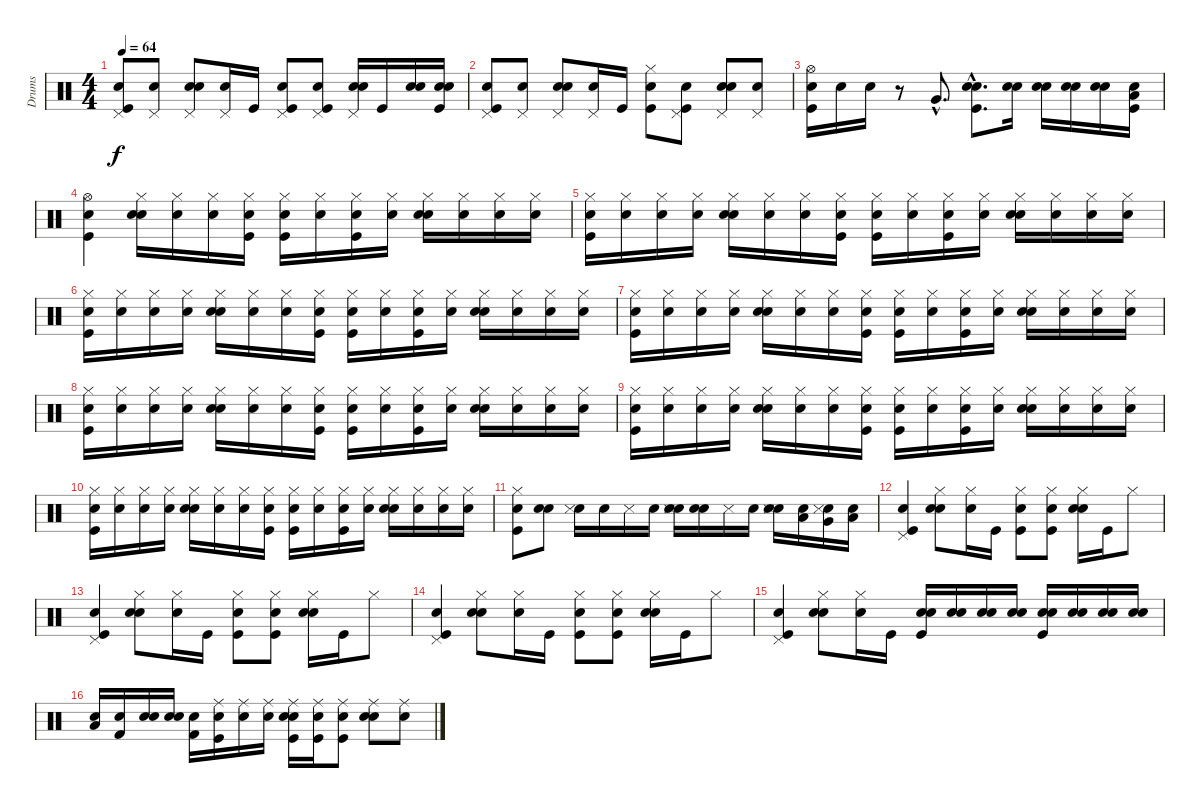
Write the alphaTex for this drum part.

\track ("Drums" "Drums") {instrument percussion}
\staff {score}
\articulation defaults
\ts (4 4)
\tempo 64
\clef neutral
\ks c
("Snare (hit)" "Kick (hit)" "Pedal Hi-Hat (hit)").8{dy f} ("Snare (hit)" "Pedal Hi-Hat (hit)").8 ("Snare (hit)" "Pedal Hi-Hat (hit)" "Snare (hit) 2").8 ("Snare (hit)" "Pedal Hi-Hat (hit)").16 "Kick (hit)".16 ("Snare (hit)" "Kick (hit)" "Pedal Hi-Hat (hit)").8 ("Snare (hit)" "Kick (hit)" "Pedal Hi-Hat (hit)").8 ("Snare (hit)" "Pedal Hi-Hat (hit)" "Snare (hit) 2").16 "Kick (hit)".16 ("Snare (hit)" "Snare (hit) 2").16 ("Snare (hit)" "Kick (hit)" "Snare (hit) 2").16 |
("Snare (hit)" "Kick (hit)" "Pedal Hi-Hat (hit)").8 ("Snare (hit)" "Pedal Hi-Hat (hit)").8 ("Snare (hit)" "Pedal Hi-Hat (hit)" "Snare (hit) 2").8 ("Snare (hit)" "Pedal Hi-Hat (hit)").16 "Kick (hit)".16 ("Snare (hit)" "Kick (hit)" "Hi-Hat (closed)").8 ("Snare (hit)" "Kick (hit)" "Pedal Hi-Hat (hit)").8 ("Snare (hit)" "Pedal Hi-Hat (hit)" "Snare (hit) 2").8 ("Snare (hit)" "Pedal Hi-Hat (hit)").8 |
("Snare (hit)" "Kick (hit)" "Hi-Hat (open)").16 "Snare (hit) 2".16 "Snare (hit) 2".16 r.8 "Very Low Tom (hit)"{hac}.8{d} ("Snare (hit)"{hac} "Kick (hit)"{hac} "Electric Snare (hit)"{hac}).8{d} ("Snare (hit)" "Snare (hit) 2").16 ("Snare (hit)" "Snare (hit) 2").16 ("Snare (hit)" "Snare (hit) 2").16 ("Snare (hit)" "Electric Snare (hit)").16 ("Snare (hit)" "Low Floor Tom (hit)" "Kick (hit)").16 |
("Snare (hit)" "Kick (hit)" "Hi-Hat (open)").4 ("Snare (hit)" "Snare (hit) 2" "Hi-Hat (closed)").16 ("Snare (hit)" "Hi-Hat (closed)").16 ("Snare (hit)" "Hi-Hat (closed)").16 ("Snare (hit)" "Kick (hit)" "Hi-Hat (closed)").16 ("Snare (hit)" "Kick (hit)" "Hi-Hat (closed)").16 ("Snare (hit)" "Hi-Hat (closed)").16 ("Snare (hit)" "Kick (hit)" "Hi-Hat (closed)").16 ("Snare (hit)" "Hi-Hat (closed)").16 ("Snare (hit)" "Snare (hit) 2" "Hi-Hat (closed)").16 ("Snare (hit)" "Hi-Hat (closed)").16 ("Snare (hit)" "Hi-Hat (closed)").16 ("Snare (hit)" "Hi-Hat (closed)").16 |
("Snare (hit)" "Kick (hit)" "Hi-Hat (closed)").16 ("Snare (hit)" "Hi-Hat (closed)").16 ("Snare (hit)" "Hi-Hat (closed)").16 ("Snare (hit)" "Hi-Hat (closed)").16 ("Snare (hit)" "Snare (hit) 2" "Hi-Hat (closed)").16 ("Snare (hit)" "Hi-Hat (closed)").16 ("Snare (hit)" "Hi-Hat (closed)").16 ("Snare (hit)" "Kick (hit)" "Hi-Hat (closed)").16 ("Snare (hit)" "Kick (hit)" "Hi-Hat (closed)").16 ("Snare (hit)" "Hi-Hat (closed)").16 ("Snare (hit)" "Kick (hit)" "Hi-Hat (closed)").16 ("Snare (hit)" "Hi-Hat (closed)").16 ("Snare (hit)" "Snare (hit) 2" "Hi-Hat (closed)").16 ("Snare (hit)" "Hi-Hat (closed)").16 ("Snare (hit)" "Hi-Hat (closed)").16 ("Snare (hit)" "Hi-Hat (closed)").16 |
("Snare (hit)" "Kick (hit)" "Hi-Hat (closed)").16 ("Snare (hit)" "Hi-Hat (closed)").16 ("Snare (hit)" "Hi-Hat (closed)").16 ("Snare (hit)" "Hi-Hat (closed)").16 ("Snare (hit)" "Snare (hit) 2" "Hi-Hat (closed)").16 ("Snare (hit)" "Hi-Hat (closed)").16 ("Snare (hit)" "Hi-Hat (closed)").16 ("Snare (hit)" "Kick (hit)" "Hi-Hat (closed)").16 ("Snare (hit)" "Kick (hit)" "Hi-Hat (closed)").16 ("Snare (hit)" "Hi-Hat (closed)").16 ("Snare (hit)" "Kick (hit)" "Hi-Hat (closed)").16 ("Snare (hit)" "Hi-Hat (closed)").16 ("Snare (hit)" "Snare (hit) 2" "Hi-Hat (closed)").16 ("Snare (hit)" "Hi-Hat (closed)").16 ("Snare (hit)" "Hi-Hat (closed)").16 ("Snare (hit)" "Hi-Hat (closed)").16 |
("Snare (hit)" "Kick (hit)" "Hi-Hat (closed)").16 ("Snare (hit)" "Hi-Hat (closed)").16 ("Snare (hit)" "Hi-Hat (closed)").16 ("Snare (hit)" "Hi-Hat (closed)").16 ("Snare (hit)" "Snare (hit) 2" "Hi-Hat (closed)").16 ("Snare (hit)" "Hi-Hat (closed)").16 ("Snare (hit)" "Hi-Hat (closed)").16 ("Snare (hit)" "Kick (hit)" "Hi-Hat (closed)").16 ("Snare (hit)" "Kick (hit)" "Hi-Hat (closed)").16 ("Snare (hit)" "Hi-Hat (closed)").16 ("Snare (hit)" "Kick (hit)" "Hi-Hat (closed)").16 ("Snare (hit)" "Hi-Hat (closed)").16 ("Snare (hit)" "Snare (hit) 2" "Hi-Hat (closed)").16 ("Snare (hit)" "Hi-Hat (closed)").16 ("Snare (hit)" "Hi-Hat (closed)").16 ("Snare (hit)" "Hi-Hat (closed)").16 |
("Snare (hit)" "Kick (hit)" "Hi-Hat (closed)").16 ("Snare (hit)" "Hi-Hat (closed)").16 ("Snare (hit)" "Hi-Hat (closed)").16 ("Snare (hit)" "Hi-Hat (closed)").16 ("Snare (hit)" "Snare (hit) 2" "Hi-Hat (closed)").16 ("Snare (hit)" "Hi-Hat (closed)").16 ("Snare (hit)" "Hi-Hat (closed)").16 ("Snare (hit)" "Kick (hit)" "Hi-Hat (closed)").16 ("Snare (hit)" "Kick (hit)" "Hi-Hat (closed)").16 ("Snare (hit)" "Hi-Hat (closed)").16 ("Snare (hit)" "Kick (hit)" "Hi-Hat (closed)").16 ("Snare (hit)" "Hi-Hat (closed)").16 ("Snare (hit)" "Snare (hit) 2" "Hi-Hat (closed)").16 ("Snare (hit)" "Hi-Hat (closed)").16 ("Snare (hit)" "Hi-Hat (closed)").16 ("Snare (hit)" "Hi-Hat (closed)").16 |
("Snare (hit)" "Kick (hit)" "Hi-Hat (closed)").16 ("Snare (hit)" "Hi-Hat (closed)").16 ("Snare (hit)" "Hi-Hat (closed)").16 ("Snare (hit)" "Hi-Hat (closed)").16 ("Snare (hit)" "Snare (hit) 2" "Hi-Hat (closed)").16 ("Snare (hit)" "Hi-Hat (closed)").16 ("Snare (hit)" "Hi-Hat (closed)").16 ("Snare (hit)" "Kick (hit)" "Hi-Hat (closed)").16 ("Snare (hit)" "Kick (hit)" "Hi-Hat (closed)").16 ("Snare (hit)" "Hi-Hat (closed)").16 ("Snare (hit)" "Kick (hit)" "Hi-Hat (closed)").16 ("Snare (hit)" "Hi-Hat (closed)").16 ("Snare (hit)" "Snare (hit) 2" "Hi-Hat (closed)").16 ("Snare (hit)" "Hi-Hat (closed)").16 ("Snare (hit)" "Hi-Hat (closed)").16 ("Snare (hit)" "Hi-Hat (closed)").16 |
("Snare (hit)" "Kick (hit)" "Hi-Hat (closed)").16 ("Snare (hit)" "Hi-Hat (closed)").16 ("Snare (hit)" "Hi-Hat (closed)").16 ("Snare (hit)" "Hi-Hat (closed)").16 ("Snare (hit)" "Snare (hit) 2" "Hi-Hat (closed)").16 ("Snare (hit)" "Hi-Hat (closed)").16 ("Snare (hit)" "Hi-Hat (closed)").16 ("Snare (hit)" "Kick (hit)" "Hi-Hat (closed)").16 ("Snare (hit)" "Kick (hit)" "Hi-Hat (closed)").16 ("Snare (hit)" "Hi-Hat (closed)").16 ("Snare (hit)" "Kick (hit)" "Hi-Hat (closed)").16 ("Snare (hit)" "Hi-Hat (closed)").16 ("Snare (hit)" "Snare (hit) 2" "Hi-Hat (closed)").16 ("Snare (hit)" "Hi-Hat (closed)").16 ("Snare (hit)" "Hi-Hat (closed)").16 ("Snare (hit)" "Hi-Hat (closed)").16 |
("Snare (hit)" "Kick (hit)" "Hi-Hat (closed)").8 ("Snare (hit)" "Snare (hit) 2").8 ("Snare (hit)" "Snare (side stick) 3").16 "Electric Snare (hit)".16 "Snare (side stick) 3".16 "Snare (hit) 2".16 ("Snare (hit)" "Snare (side stick) 3" "Snare (hit) 2").16 ("Snare (hit)" "Electric Snare (hit)").16 "Snare (side stick) 3".16 "Electric Snare (hit)".16 ("Snare (hit)" "Electric Snare (hit)" "Snare (side stick) 3").16 ("Snare (hit)" "Low Floor Tom (hit)").16 ("Snare (hit)" "Snare (side stick) 3" "Very Low Tom (hit)").16 ("Snare (hit)" "Low Tom (hit)").16 |
("Snare (hit)" "Kick (hit)" "Pedal Hi-Hat (hit)").4 ("Snare (hit)" "Snare (hit) 2" "Hi-Hat (closed)").8 ("Snare (hit)" "Hi-Hat (closed)").16 "Kick (hit)".16 ("Snare (hit)" "Kick (hit)" "Hi-Hat (closed)").8 ("Snare (hit)" "Kick (hit)" "Hi-Hat (closed)").8 ("Snare (hit)" "Hi-Hat (closed)" "Snare (hit) 2").16 "Kick (hit)".16 "Hi-Hat (closed)".8 |
("Snare (hit)" "Kick (hit)" "Pedal Hi-Hat (hit)").4 ("Snare (hit)" "Snare (hit) 2" "Hi-Hat (closed)").8 ("Snare (hit)" "Hi-Hat (closed)").16 "Kick (hit)".16 ("Snare (hit)" "Kick (hit)" "Hi-Hat (closed)").8 ("Snare (hit)" "Kick (hit)" "Hi-Hat (closed)").8 ("Snare (hit)" "Hi-Hat (closed)" "Snare (hit) 2").16 "Kick (hit)".16 "Hi-Hat (closed)".8 |
("Snare (hit)" "Kick (hit)" "Pedal Hi-Hat (hit)").4 ("Snare (hit)" "Snare (hit) 2" "Hi-Hat (closed)").8 ("Snare (hit)" "Hi-Hat (closed)").16 "Kick (hit)".16 ("Snare (hit)" "Kick (hit)" "Hi-Hat (closed)").8 ("Snare (hit)" "Kick (hit)" "Hi-Hat (closed)").8 ("Snare (hit)" "Hi-Hat (closed)" "Snare (hit) 2").16 "Kick (hit)".16 "Hi-Hat (closed)".8 |
("Snare (hit)" "Kick (hit)" "Pedal Hi-Hat (hit)").4 ("Snare (hit)" "Snare (hit) 2" "Hi-Hat (closed)").8 ("Snare (hit)" "Hi-Hat (closed)").16 "Kick (hit)".16 ("Snare (hit)" "Kick (hit)" "Snare (hit) 2").16 ("Snare (hit)" "Snare (hit) 2").16 ("Snare (hit)" "Snare (hit) 2").16 ("Snare (hit)" "Snare (hit) 2").16 ("Snare (hit)" "Kick (hit)" "Snare (hit) 2").16 ("Snare (hit)" "Snare (hit) 2").16 ("Snare (hit)" "Snare (hit) 2").16 ("Snare (hit)" "Snare (hit) 2").16 |
("Snare (hit)" "Low Floor Tom (hit)").16 ("Snare (hit)" "Kick (hit) 2").16 ("Snare (hit)" "Electric Snare (hit)").16 ("Snare (hit)" "Electric Snare (hit)").16 ("Snare (hit)" "Kick (hit) 2").16 ("Snare (hit)" "Ride (middle)" "Kick (hit)").16 ("Snare (hit)" "Ride (middle)").16 ("Snare (hit)" "Ride (middle)").16 ("Snare (hit)" "Electric Snare (hit)" "Ride (middle)" "Kick (hit)").16 ("Snare (hit)" "Kick (hit)" "Ride (middle)").16 ("Snare (hit)" "Kick (hit)" "Ride (middle)").8 ("Snare (hit)" "Ride (middle)" "Snare (hit) 2").8 ("Snare (hit)" "Ride (middle)").8
